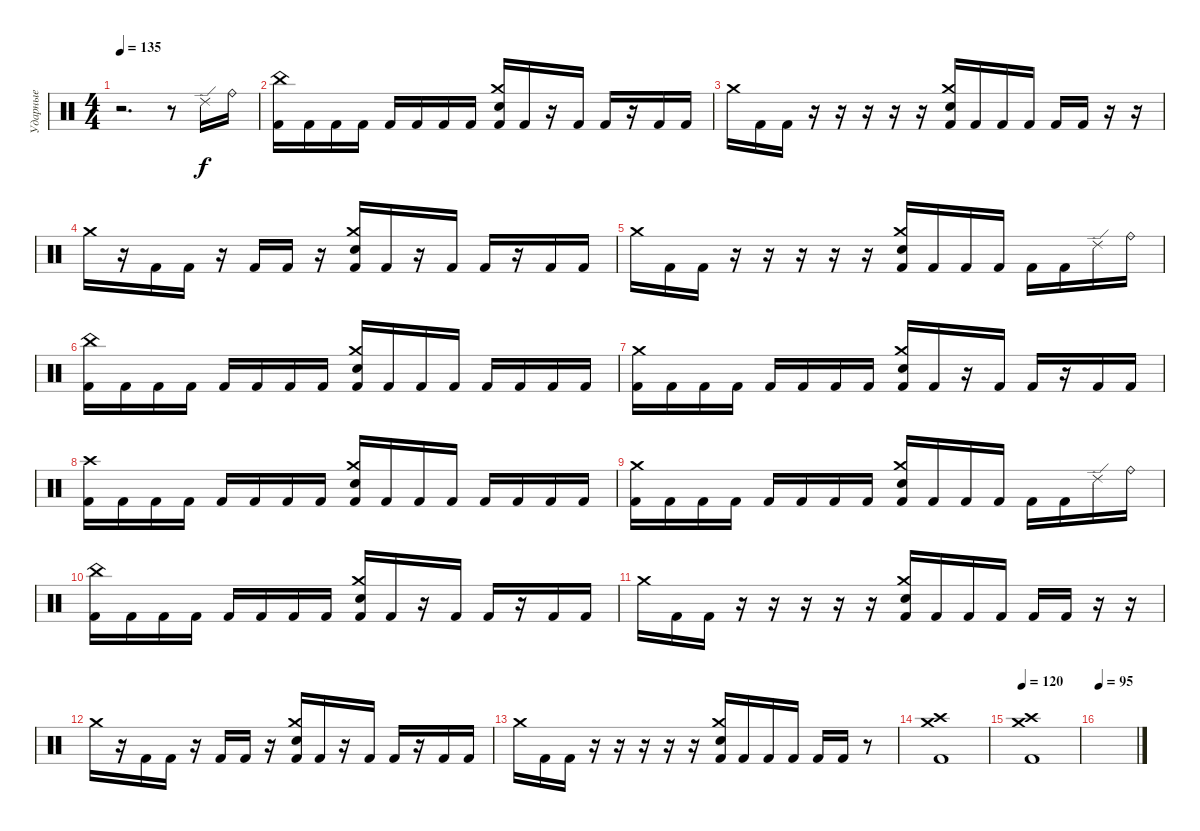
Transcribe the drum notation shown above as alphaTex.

\track ("Ударные" "Ударные") {instrument percussion}
\staff
\articulation defaults
\ts (4 4)
\tempo 135
\clef neutral
\ks c
r.2{d dy f} r.8 "Ride (edge) 2".16 "Ride (bell)".16 |
("China (hit)" "Kick (hit) 2").16 "Kick (hit) 2".16 "Kick (hit) 2".16 "Kick (hit) 2".16 "Kick (hit) 2".16 "Kick (hit) 2".16 "Kick (hit) 2".16 "Kick (hit) 2".16 ("Crash medium (hit)" "Electric Snare (hit)" "Kick (hit) 2").16 "Kick (hit) 2".16 r.16 "Kick (hit) 2".16 "Kick (hit) 2".16 r.16 "Kick (hit) 2".16 "Kick (hit) 2".16 |
"Crash medium (hit)".16 "Kick (hit) 2".16 "Kick (hit) 2".16 r.16 r.16 r.16 r.16 r.16 ("Crash medium (hit)" "Electric Snare (hit)" "Kick (hit) 2").16 "Kick (hit) 2".16 "Kick (hit) 2".16 "Kick (hit) 2".16 "Kick (hit) 2".16 "Kick (hit) 2".16 r.16 r.16 |
"Crash medium (hit)".16 r.16 "Kick (hit) 2".16 "Kick (hit) 2".16 r.16 "Kick (hit) 2".16 "Kick (hit) 2".16 r.16 ("Crash medium (hit)" "Electric Snare (hit)" "Kick (hit) 2").16 "Kick (hit) 2".16 r.16 "Kick (hit) 2".16 "Kick (hit) 2".16 r.16 "Kick (hit) 2".16 "Kick (hit) 2".16 |
"Crash medium (hit)".16 "Kick (hit) 2".16 "Kick (hit) 2".16 r.16 r.16 r.16 r.16 r.16 ("Crash medium (hit)" "Electric Snare (hit)" "Kick (hit) 2").16 "Kick (hit) 2".16 "Kick (hit) 2".16 "Kick (hit) 2".16 "Kick (hit) 2".16 "Kick (hit) 2".16 "Ride (edge) 2".16 "Ride (bell)".16 |
("China (hit)" "Kick (hit) 2").16 "Kick (hit) 2".16 "Kick (hit) 2".16 "Kick (hit) 2".16 "Kick (hit) 2".16 "Kick (hit) 2".16 "Kick (hit) 2".16 "Kick (hit) 2".16 ("Crash medium (hit)" "Electric Snare (hit)" "Kick (hit) 2").16 "Kick (hit) 2".16 "Kick (hit) 2".16 "Kick (hit) 2".16 "Kick (hit) 2".16 "Kick (hit) 2".16 "Kick (hit) 2".16 "Kick (hit) 2".16 |
("Crash medium (hit)" "Kick (hit) 2").16 "Kick (hit) 2".16 "Kick (hit) 2".16 "Kick (hit) 2".16 "Kick (hit) 2".16 "Kick (hit) 2".16 "Kick (hit) 2".16 "Kick (hit) 2".16 ("Crash medium (hit)" "Electric Snare (hit)" "Kick (hit) 2").16 "Kick (hit) 2".16 r.16 "Kick (hit) 2".16 "Kick (hit) 2".16 r.16 "Kick (hit) 2".16 "Kick (hit) 2".16 |
("Crash high (hit)" "Kick (hit) 2").16 "Kick (hit) 2".16 "Kick (hit) 2".16 "Kick (hit) 2".16 "Kick (hit) 2".16 "Kick (hit) 2".16 "Kick (hit) 2".16 "Kick (hit) 2".16 ("Crash medium (hit)" "Electric Snare (hit)" "Kick (hit) 2").16 "Kick (hit) 2".16 "Kick (hit) 2".16 "Kick (hit) 2".16 "Kick (hit) 2".16 "Kick (hit) 2".16 "Kick (hit) 2".16 "Kick (hit) 2".16 |
("Crash medium (hit)" "Kick (hit) 2").16 "Kick (hit) 2".16 "Kick (hit) 2".16 "Kick (hit) 2".16 "Kick (hit) 2".16 "Kick (hit) 2".16 "Kick (hit) 2".16 "Kick (hit) 2".16 ("Crash medium (hit)" "Electric Snare (hit)" "Kick (hit) 2").16 "Kick (hit) 2".16 "Kick (hit) 2".16 "Kick (hit) 2".16 "Kick (hit) 2".16 "Kick (hit) 2".16 "Ride (edge) 2".16 "Ride (bell)".16 |
("China (hit)" "Kick (hit) 2").16 "Kick (hit) 2".16 "Kick (hit) 2".16 "Kick (hit) 2".16 "Kick (hit) 2".16 "Kick (hit) 2".16 "Kick (hit) 2".16 "Kick (hit) 2".16 ("Crash medium (hit)" "Electric Snare (hit)" "Kick (hit) 2").16 "Kick (hit) 2".16 r.16 "Kick (hit) 2".16 "Kick (hit) 2".16 r.16 "Kick (hit) 2".16 "Kick (hit) 2".16 |
"Crash medium (hit)".16 "Kick (hit) 2".16 "Kick (hit) 2".16 r.16 r.16 r.16 r.16 r.16 ("Crash medium (hit)" "Electric Snare (hit)" "Kick (hit) 2").16 "Kick (hit) 2".16 "Kick (hit) 2".16 "Kick (hit) 2".16 "Kick (hit) 2".16 "Kick (hit) 2".16 r.16 r.16 |
"Crash medium (hit)".16 r.16 "Kick (hit) 2".16 "Kick (hit) 2".16 r.16 "Kick (hit) 2".16 "Kick (hit) 2".16 r.16 ("Crash medium (hit)" "Electric Snare (hit)" "Kick (hit) 2").16 "Kick (hit) 2".16 r.16 "Kick (hit) 2".16 "Kick (hit) 2".16 r.16 "Kick (hit) 2".16 "Kick (hit) 2".16 |
"Crash medium (hit)".16 "Kick (hit) 2".16 "Kick (hit) 2".16 r.16 r.16 r.16 r.16 r.16 ("Crash medium (hit)" "Electric Snare (hit)" "Kick (hit) 2").16 "Kick (hit) 2".16 "Kick (hit) 2".16 "Kick (hit) 2".16 "Kick (hit) 2".16 "Kick (hit) 2".16 r.8 |
("Crash high (hit)" "Crash medium (hit)" "Kick (hit) 2").1 |
\tempo 120
("Crash high (hit)" "Crash medium (hit)" "Kick (hit) 2").1 |
\tempo 95
